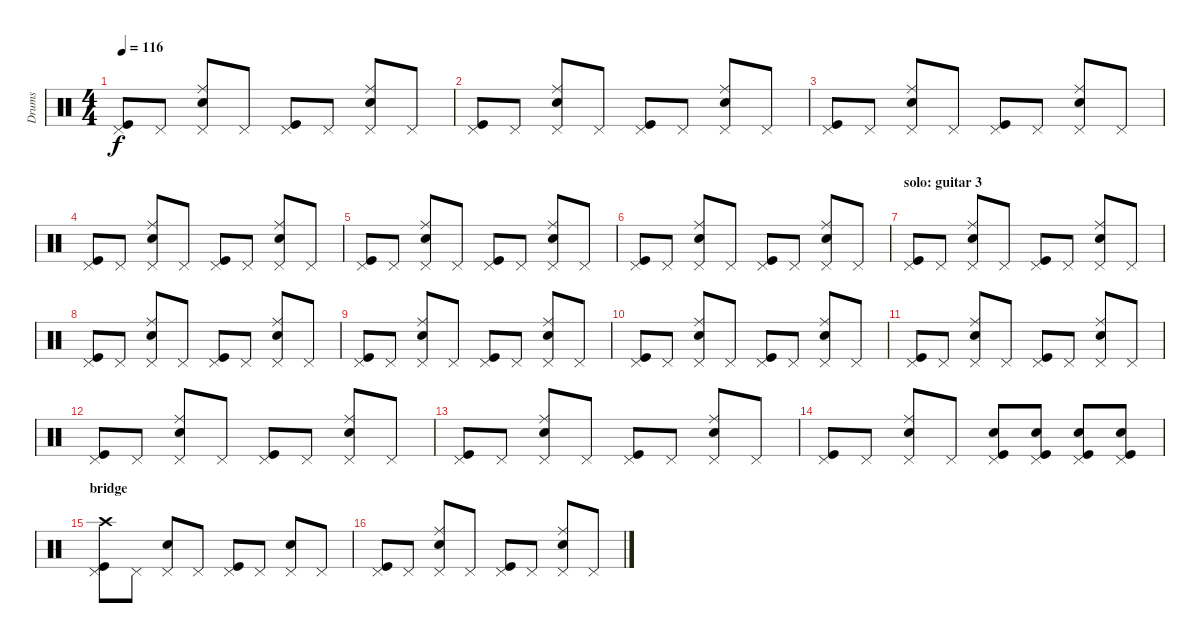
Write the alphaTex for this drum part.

\track ("Drums" "Drums") {instrument percussion}
\staff {score}
\articulation defaults
\ts (4 4)
\tempo 116
\clef neutral
\ks c
("Pedal Hi-Hat (hit)" "Kick (hit)").8{dy f} "Pedal Hi-Hat (hit)".8 ("Ride (middle)" "Electric Snare (hit)" "Pedal Hi-Hat (hit)").8 "Pedal Hi-Hat (hit)".8 ("Pedal Hi-Hat (hit)" "Kick (hit)").8 "Pedal Hi-Hat (hit)".8 ("Ride (middle)" "Electric Snare (hit)" "Pedal Hi-Hat (hit)").8 "Pedal Hi-Hat (hit)".8 |
("Pedal Hi-Hat (hit)" "Kick (hit)").8 "Pedal Hi-Hat (hit)".8 ("Ride (middle)" "Electric Snare (hit)" "Pedal Hi-Hat (hit)").8 "Pedal Hi-Hat (hit)".8 ("Pedal Hi-Hat (hit)" "Kick (hit)").8 "Pedal Hi-Hat (hit)".8 ("Ride (middle)" "Electric Snare (hit)" "Pedal Hi-Hat (hit)").8 "Pedal Hi-Hat (hit)".8 |
("Pedal Hi-Hat (hit)" "Kick (hit)").8 "Pedal Hi-Hat (hit)".8 ("Ride (middle)" "Electric Snare (hit)" "Pedal Hi-Hat (hit)").8 "Pedal Hi-Hat (hit)".8 ("Pedal Hi-Hat (hit)" "Kick (hit)").8 "Pedal Hi-Hat (hit)".8 ("Ride (middle)" "Electric Snare (hit)" "Pedal Hi-Hat (hit)").8 "Pedal Hi-Hat (hit)".8 |
("Pedal Hi-Hat (hit)" "Kick (hit)").8 "Pedal Hi-Hat (hit)".8 ("Ride (middle)" "Electric Snare (hit)" "Pedal Hi-Hat (hit)").8 "Pedal Hi-Hat (hit)".8 ("Pedal Hi-Hat (hit)" "Kick (hit)").8 "Pedal Hi-Hat (hit)".8 ("Ride (middle)" "Electric Snare (hit)" "Pedal Hi-Hat (hit)").8 "Pedal Hi-Hat (hit)".8 |
("Pedal Hi-Hat (hit)" "Kick (hit)").8 "Pedal Hi-Hat (hit)".8 ("Ride (middle)" "Electric Snare (hit)" "Pedal Hi-Hat (hit)").8 "Pedal Hi-Hat (hit)".8 ("Pedal Hi-Hat (hit)" "Kick (hit)").8 "Pedal Hi-Hat (hit)".8 ("Ride (middle)" "Electric Snare (hit)" "Pedal Hi-Hat (hit)").8 "Pedal Hi-Hat (hit)".8 |
("Pedal Hi-Hat (hit)" "Kick (hit)").8 "Pedal Hi-Hat (hit)".8 ("Ride (middle)" "Electric Snare (hit)" "Pedal Hi-Hat (hit)").8 "Pedal Hi-Hat (hit)".8 ("Pedal Hi-Hat (hit)" "Kick (hit)").8 "Pedal Hi-Hat (hit)".8 ("Ride (middle)" "Electric Snare (hit)" "Pedal Hi-Hat (hit)").8 "Pedal Hi-Hat (hit)".8 |
\section ("" "solo: guitar 3 ")
("Pedal Hi-Hat (hit)" "Kick (hit)").8 "Pedal Hi-Hat (hit)".8 ("Ride (middle)" "Electric Snare (hit)" "Pedal Hi-Hat (hit)").8 "Pedal Hi-Hat (hit)".8 ("Pedal Hi-Hat (hit)" "Kick (hit)").8 "Pedal Hi-Hat (hit)".8 ("Ride (middle)" "Electric Snare (hit)" "Pedal Hi-Hat (hit)").8 "Pedal Hi-Hat (hit)".8 |
("Pedal Hi-Hat (hit)" "Kick (hit)").8 "Pedal Hi-Hat (hit)".8 ("Ride (middle)" "Electric Snare (hit)" "Pedal Hi-Hat (hit)").8 "Pedal Hi-Hat (hit)".8 ("Pedal Hi-Hat (hit)" "Kick (hit)").8 "Pedal Hi-Hat (hit)".8 ("Ride (middle)" "Electric Snare (hit)" "Pedal Hi-Hat (hit)").8 "Pedal Hi-Hat (hit)".8 |
("Pedal Hi-Hat (hit)" "Kick (hit)").8 "Pedal Hi-Hat (hit)".8 ("Ride (middle)" "Electric Snare (hit)" "Pedal Hi-Hat (hit)").8 "Pedal Hi-Hat (hit)".8 ("Pedal Hi-Hat (hit)" "Kick (hit)").8 "Pedal Hi-Hat (hit)".8 ("Ride (middle)" "Electric Snare (hit)" "Pedal Hi-Hat (hit)").8 "Pedal Hi-Hat (hit)".8 |
("Pedal Hi-Hat (hit)" "Kick (hit)").8 "Pedal Hi-Hat (hit)".8 ("Ride (middle)" "Electric Snare (hit)" "Pedal Hi-Hat (hit)").8 "Pedal Hi-Hat (hit)".8 ("Pedal Hi-Hat (hit)" "Kick (hit)").8 "Pedal Hi-Hat (hit)".8 ("Ride (middle)" "Electric Snare (hit)" "Pedal Hi-Hat (hit)").8 "Pedal Hi-Hat (hit)".8 |
("Pedal Hi-Hat (hit)" "Kick (hit)").8 "Pedal Hi-Hat (hit)".8 ("Ride (middle)" "Electric Snare (hit)" "Pedal Hi-Hat (hit)").8 "Pedal Hi-Hat (hit)".8 ("Pedal Hi-Hat (hit)" "Kick (hit)").8 "Pedal Hi-Hat (hit)".8 ("Ride (middle)" "Electric Snare (hit)" "Pedal Hi-Hat (hit)").8 "Pedal Hi-Hat (hit)".8 |
("Pedal Hi-Hat (hit)" "Kick (hit)").8 "Pedal Hi-Hat (hit)".8 ("Ride (middle)" "Electric Snare (hit)" "Pedal Hi-Hat (hit)").8 "Pedal Hi-Hat (hit)".8 ("Pedal Hi-Hat (hit)" "Kick (hit)").8 "Pedal Hi-Hat (hit)".8 ("Ride (middle)" "Electric Snare (hit)" "Pedal Hi-Hat (hit)").8 "Pedal Hi-Hat (hit)".8 |
("Pedal Hi-Hat (hit)" "Kick (hit)").8 "Pedal Hi-Hat (hit)".8 ("Ride (middle)" "Electric Snare (hit)" "Pedal Hi-Hat (hit)").8 "Pedal Hi-Hat (hit)".8 ("Pedal Hi-Hat (hit)" "Kick (hit)").8 "Pedal Hi-Hat (hit)".8 ("Ride (middle)" "Electric Snare (hit)" "Pedal Hi-Hat (hit)").8 "Pedal Hi-Hat (hit)".8 |
("Pedal Hi-Hat (hit)" "Kick (hit)").8 "Pedal Hi-Hat (hit)".8 ("Ride (middle)" "Electric Snare (hit)" "Pedal Hi-Hat (hit)").8 "Pedal Hi-Hat (hit)".8 ("Electric Snare (hit)" "Pedal Hi-Hat (hit)" "Kick (hit)").8 ("Electric Snare (hit)" "Pedal Hi-Hat (hit)" "Kick (hit)").8 ("Electric Snare (hit)" "Pedal Hi-Hat (hit)" "Kick (hit)").8 ("Electric Snare (hit)" "Pedal Hi-Hat (hit)" "Kick (hit)").8 |
\section ("" "bridge")
("Crash high (hit)" "Pedal Hi-Hat (hit)" "Kick (hit)").8 "Pedal Hi-Hat (hit)".8 ("Electric Snare (hit)" "Pedal Hi-Hat (hit)").8 "Pedal Hi-Hat (hit)".8 ("Pedal Hi-Hat (hit)" "Kick (hit)").8 "Pedal Hi-Hat (hit)".8 ("Electric Snare (hit)" "Pedal Hi-Hat (hit)").8 "Pedal Hi-Hat (hit)".8 |
("Pedal Hi-Hat (hit)" "Kick (hit)").8 "Pedal Hi-Hat (hit)".8 ("Ride (middle)" "Electric Snare (hit)" "Pedal Hi-Hat (hit)").8 "Pedal Hi-Hat (hit)".8 ("Pedal Hi-Hat (hit)" "Kick (hit)").8 "Pedal Hi-Hat (hit)".8 ("Ride (middle)" "Electric Snare (hit)" "Pedal Hi-Hat (hit)").8 "Pedal Hi-Hat (hit)".8
